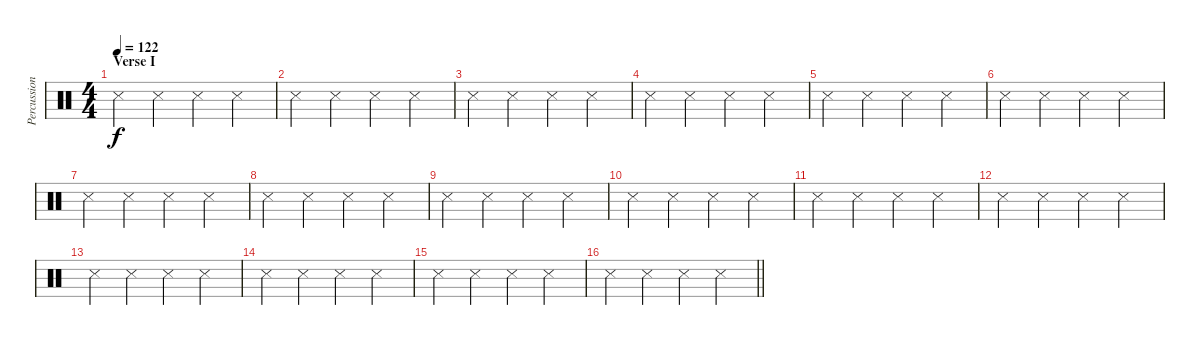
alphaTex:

\track ("Percussion" "Percussion") {instrument percussion}
\staff {score}
\articulation defaults
\ts (4 4)
\section ("" "Verse I")
\tempo 122
\clef neutral
\ks c "Snare (side stick) 3".4{dy f} "Metronome (hit)".4 "Metronome (hit)".4 "Metronome (hit)".4
|
"Snare (side stick) 3".4 "Metronome (hit)".4 "Metronome (hit)".4 "Metronome (hit)".4 |
"Snare (side stick) 3".4 "Metronome (hit)".4 "Metronome (hit)".4 "Metronome (hit)".4 |
"Snare (side stick) 3".4 "Metronome (hit)".4 "Metronome (hit)".4 "Metronome (hit)".4 |
"Snare (side stick) 3".4 "Metronome (hit)".4 "Metronome (hit)".4 "Metronome (hit)".4 |
"Snare (side stick) 3".4 "Metronome (hit)".4 "Metronome (hit)".4 "Metronome (hit)".4 |
"Snare (side stick) 3".4 "Metronome (hit)".4 "Metronome (hit)".4 "Metronome (hit)".4 |
"Snare (side stick) 3".4 "Metronome (hit)".4 "Metronome (hit)".4 "Metronome (hit)".4 |
"Snare (side stick) 3".4 "Metronome (hit)".4 "Metronome (hit)".4 "Metronome (hit)".4 |
"Snare (side stick) 3".4 "Metronome (hit)".4 "Metronome (hit)".4 "Metronome (hit)".4 |
"Snare (side stick) 3".4 "Metronome (hit)".4 "Metronome (hit)".4 "Metronome (hit)".4 |
"Snare (side stick) 3".4 "Metronome (hit)".4 "Metronome (hit)".4 "Metronome (hit)".4 |
"Snare (side stick) 3".4 "Metronome (hit)".4 "Metronome (hit)".4 "Metronome (hit)".4 |
"Snare (side stick) 3".4 "Metronome (hit)".4 "Metronome (hit)".4 "Metronome (hit)".4 |
"Snare (side stick) 3".4 "Metronome (hit)".4 "Metronome (hit)".4 "Metronome (hit)".4 |
\barLineRight lightlight "Snare (side stick) 3".4 "Metronome (hit)".4 "Metronome (hit)".4 "Metronome (hit)".4
